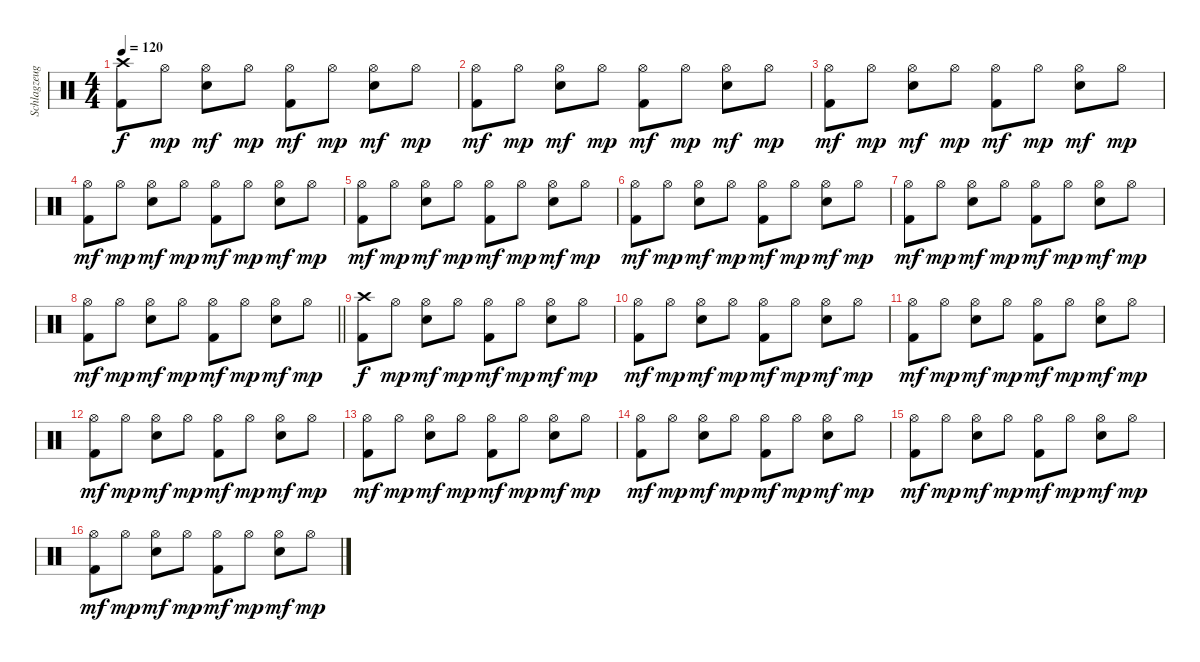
\track ("Schlagzeug" "Schlagzeug") {instrument percussion}
\staff {score}
\articulation defaults
\ts (4 4)
\tempo 120
\clef neutral
\ks c
("Crash high (hit)" "Kick (hit) 2").8{dy f} "Hi-Hat (open)".8{dy mp} ("Hi-Hat (open)" "Electric Snare (hit)").8{dy mf} "Hi-Hat (open)".8{dy mp} ("Hi-Hat (open)" "Kick (hit) 2").8{dy mf} "Hi-Hat (open)".8{dy mp} ("Hi-Hat (open)" "Electric Snare (hit)").8{dy mf} "Hi-Hat (open)".8{dy mp} |
("Hi-Hat (open)" "Kick (hit) 2").8{dy mf} "Hi-Hat (open)".8{dy mp} ("Hi-Hat (open)" "Electric Snare (hit)").8{dy mf} "Hi-Hat (open)".8{dy mp} ("Hi-Hat (open)" "Kick (hit) 2").8{dy mf} "Hi-Hat (open)".8{dy mp} ("Hi-Hat (open)" "Electric Snare (hit)").8{dy mf} "Hi-Hat (open)".8{dy mp} |
("Hi-Hat (open)" "Kick (hit) 2").8{dy mf} "Hi-Hat (open)".8{dy mp} ("Hi-Hat (open)" "Electric Snare (hit)").8{dy mf} "Hi-Hat (open)".8{dy mp} ("Hi-Hat (open)" "Kick (hit) 2").8{dy mf} "Hi-Hat (open)".8{dy mp} ("Hi-Hat (open)" "Electric Snare (hit)").8{dy mf} "Hi-Hat (open)".8{dy mp} |
("Hi-Hat (open)" "Kick (hit) 2").8{dy mf} "Hi-Hat (open)".8{dy mp} ("Hi-Hat (open)" "Electric Snare (hit)").8{dy mf} "Hi-Hat (open)".8{dy mp} ("Hi-Hat (open)" "Kick (hit) 2").8{dy mf} "Hi-Hat (open)".8{dy mp} ("Hi-Hat (open)" "Electric Snare (hit)").8{dy mf} "Hi-Hat (open)".8{dy mp} |
("Hi-Hat (open)" "Kick (hit) 2").8{dy mf} "Hi-Hat (open)".8{dy mp} ("Hi-Hat (open)" "Electric Snare (hit)").8{dy mf} "Hi-Hat (open)".8{dy mp} ("Hi-Hat (open)" "Kick (hit) 2").8{dy mf} "Hi-Hat (open)".8{dy mp} ("Hi-Hat (open)" "Electric Snare (hit)").8{dy mf} "Hi-Hat (open)".8{dy mp} |
("Hi-Hat (open)" "Kick (hit) 2").8{dy mf} "Hi-Hat (open)".8{dy mp} ("Hi-Hat (open)" "Electric Snare (hit)").8{dy mf} "Hi-Hat (open)".8{dy mp} ("Hi-Hat (open)" "Kick (hit) 2").8{dy mf} "Hi-Hat (open)".8{dy mp} ("Hi-Hat (open)" "Electric Snare (hit)").8{dy mf} "Hi-Hat (open)".8{dy mp} |
("Hi-Hat (open)" "Kick (hit) 2").8{dy mf} "Hi-Hat (open)".8{dy mp} ("Hi-Hat (open)" "Electric Snare (hit)").8{dy mf} "Hi-Hat (open)".8{dy mp} ("Hi-Hat (open)" "Kick (hit) 2").8{dy mf} "Hi-Hat (open)".8{dy mp} ("Hi-Hat (open)" "Electric Snare (hit)").8{dy mf} "Hi-Hat (open)".8{dy mp} |
\barLineRight lightlight
("Hi-Hat (open)" "Kick (hit) 2").8{dy mf} "Hi-Hat (open)".8{dy mp} ("Hi-Hat (open)" "Electric Snare (hit)").8{dy mf} "Hi-Hat (open)".8{dy mp} ("Hi-Hat (open)" "Kick (hit) 2").8{dy mf} "Hi-Hat (open)".8{dy mp} ("Hi-Hat (open)" "Electric Snare (hit)").8{dy mf} "Hi-Hat (open)".8{dy mp} |
("Crash high (hit)" "Kick (hit) 2").8{dy f} "Hi-Hat (open)".8{dy mp} ("Hi-Hat (open)" "Electric Snare (hit)").8{dy mf} "Hi-Hat (open)".8{dy mp} ("Hi-Hat (open)" "Kick (hit) 2").8{dy mf} "Hi-Hat (open)".8{dy mp} ("Hi-Hat (open)" "Electric Snare (hit)").8{dy mf} "Hi-Hat (open)".8{dy mp} |
("Hi-Hat (open)" "Kick (hit) 2").8{dy mf} "Hi-Hat (open)".8{dy mp} ("Hi-Hat (open)" "Electric Snare (hit)").8{dy mf} "Hi-Hat (open)".8{dy mp} ("Hi-Hat (open)" "Kick (hit) 2").8{dy mf} "Hi-Hat (open)".8{dy mp} ("Hi-Hat (open)" "Electric Snare (hit)").8{dy mf} "Hi-Hat (open)".8{dy mp} |
("Hi-Hat (open)" "Kick (hit) 2").8{dy mf} "Hi-Hat (open)".8{dy mp} ("Hi-Hat (open)" "Electric Snare (hit)").8{dy mf} "Hi-Hat (open)".8{dy mp} ("Hi-Hat (open)" "Kick (hit) 2").8{dy mf} "Hi-Hat (open)".8{dy mp} ("Hi-Hat (open)" "Electric Snare (hit)").8{dy mf} "Hi-Hat (open)".8{dy mp} |
("Hi-Hat (open)" "Kick (hit) 2").8{dy mf} "Hi-Hat (open)".8{dy mp} ("Hi-Hat (open)" "Electric Snare (hit)").8{dy mf} "Hi-Hat (open)".8{dy mp} ("Hi-Hat (open)" "Kick (hit) 2").8{dy mf} "Hi-Hat (open)".8{dy mp} ("Hi-Hat (open)" "Electric Snare (hit)").8{dy mf} "Hi-Hat (open)".8{dy mp} |
("Hi-Hat (open)" "Kick (hit) 2").8{dy mf} "Hi-Hat (open)".8{dy mp} ("Hi-Hat (open)" "Electric Snare (hit)").8{dy mf} "Hi-Hat (open)".8{dy mp} ("Hi-Hat (open)" "Kick (hit) 2").8{dy mf} "Hi-Hat (open)".8{dy mp} ("Hi-Hat (open)" "Electric Snare (hit)").8{dy mf} "Hi-Hat (open)".8{dy mp} |
("Hi-Hat (open)" "Kick (hit) 2").8{dy mf} "Hi-Hat (open)".8{dy mp} ("Hi-Hat (open)" "Electric Snare (hit)").8{dy mf} "Hi-Hat (open)".8{dy mp} ("Hi-Hat (open)" "Kick (hit) 2").8{dy mf} "Hi-Hat (open)".8{dy mp} ("Hi-Hat (open)" "Electric Snare (hit)").8{dy mf} "Hi-Hat (open)".8{dy mp} |
("Hi-Hat (open)" "Kick (hit) 2").8{dy mf} "Hi-Hat (open)".8{dy mp} ("Hi-Hat (open)" "Electric Snare (hit)").8{dy mf} "Hi-Hat (open)".8{dy mp} ("Hi-Hat (open)" "Kick (hit) 2").8{dy mf} "Hi-Hat (open)".8{dy mp} ("Hi-Hat (open)" "Electric Snare (hit)").8{dy mf} "Hi-Hat (open)".8{dy mp} |
("Hi-Hat (open)" "Kick (hit) 2").8{dy mf} "Hi-Hat (open)".8{dy mp} ("Hi-Hat (open)" "Electric Snare (hit)").8{dy mf} "Hi-Hat (open)".8{dy mp} ("Hi-Hat (open)" "Kick (hit) 2").8{dy mf} "Hi-Hat (open)".8{dy mp} ("Hi-Hat (open)" "Electric Snare (hit)").8{dy mf} "Hi-Hat (open)".8{dy mp}
